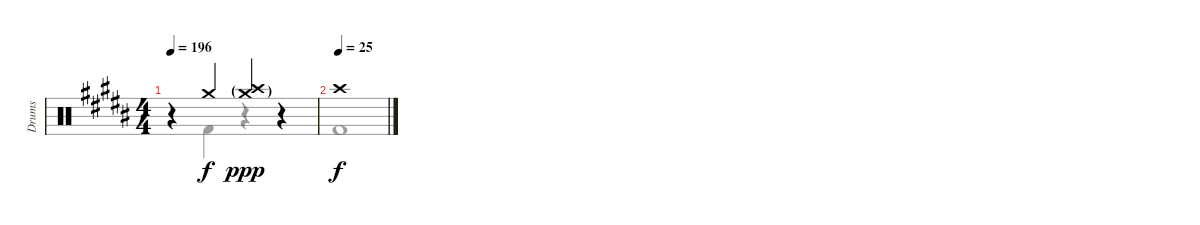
\track ("Drums" "Drums") {instrument percussion}
\staff {score}
\articulation defaults
\voice
\ts (4 4)
\tempo 196
\clef neutral
\ks b
r.4{dy f} "Crash medium (hit)".4 ("Crash medium (hit)"{g} "Crash high (hit)"{g}).4{dy ppp} r.4 |
\tempo (25)
"Crash high (hit)".1{dy f volume 0}
\voice
\clef neutral
\ottava regular
\simile none
\ks b
r.4{dy f} "Kick (hit) 2".4 r.4 r.4 |
"Kick (hit) 2".1
